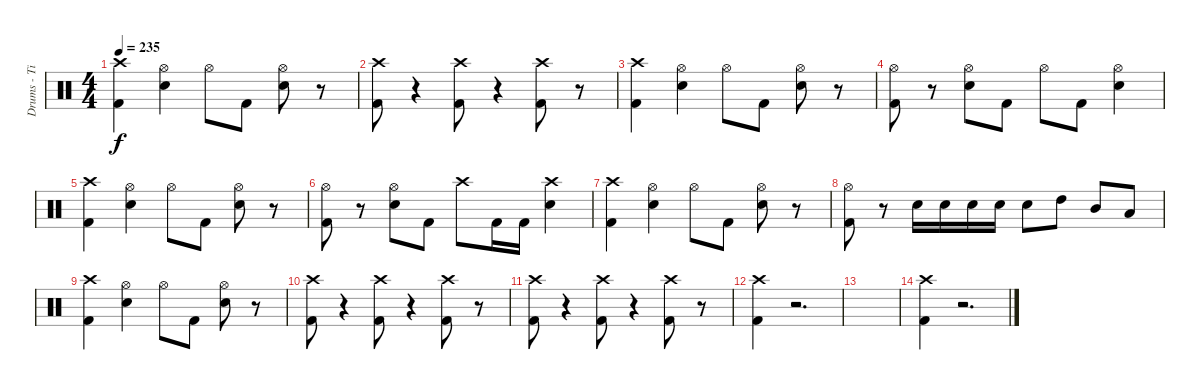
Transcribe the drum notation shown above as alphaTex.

\track ("Drums - Tim \"Herb\" Alexander" "Drums - Ti") {instrument percussion}
\staff {score}
\articulation defaults
\ts (4 4)
\tempo 235
\clef neutral
\ks c
("Crash high (hit)" "Kick (hit) 2").4{dy f} ("Hi-Hat (open)" "Snare (hit) 2").4 "Hi-Hat (open)".8 "Kick (hit) 2".8 ("Hi-Hat (open)" "Snare (hit) 2").8 r.8 |
("Crash high (hit)" "Kick (hit) 2").8 r.4 ("Crash high (hit)" "Kick (hit) 2").8 r.4 ("Crash high (hit)" "Kick (hit) 2").8 r.8 |
("Crash high (hit)" "Kick (hit) 2").4 ("Hi-Hat (open)" "Snare (hit) 2").4 "Hi-Hat (open)".8 "Kick (hit) 2".8 ("Hi-Hat (open)" "Snare (hit) 2").8 r.8 |
("Hi-Hat (open)" "Kick (hit) 2").8 r.8 ("Hi-Hat (open)" "Snare (hit) 2").8 "Kick (hit) 2".8 "Hi-Hat (open)".8 "Kick (hit) 2".8 ("Hi-Hat (open)" "Snare (hit) 2").4 |
("Crash high (hit)" "Kick (hit) 2").4 ("Hi-Hat (open)" "Snare (hit) 2").4 "Hi-Hat (open)".8 "Kick (hit) 2".8 ("Hi-Hat (open)" "Snare (hit) 2").8 r.8 |
("Hi-Hat (open)" "Kick (hit) 2").8 r.8 ("Hi-Hat (open)" "Snare (hit) 2").8 "Kick (hit) 2".8 "Crash high (hit)".8 "Kick (hit) 2".16 "Kick (hit) 2".16 ("Crash high (hit)" "Snare (hit) 2").4 |
("Crash high (hit)" "Kick (hit) 2").4 ("Hi-Hat (open)" "Snare (hit) 2").4 "Hi-Hat (open)".8 "Kick (hit) 2".8 ("Hi-Hat (open)" "Snare (hit) 2").8 r.8 |
("Hi-Hat (open)" "Kick (hit) 2").8 r.8 "Snare (hit) 2".16 "Snare (hit) 2".16 "Snare (hit) 2".16 "Snare (hit) 2".16 "Snare (hit) 2".8 "High Tom (hit)".8 "Mid Tom (hit)".8 "Low Tom (hit)".8 |
("Crash high (hit)" "Kick (hit) 2").4 ("Hi-Hat (open)" "Snare (hit) 2").4 "Hi-Hat (open)".8 "Kick (hit) 2".8 ("Hi-Hat (open)" "Snare (hit) 2").8 r.8 |
("Crash high (hit)" "Kick (hit) 2").8 r.4 ("Crash high (hit)" "Kick (hit) 2").8 r.4 ("Crash high (hit)" "Kick (hit) 2").8 r.8 |
("Crash high (hit)" "Kick (hit) 2").8 r.4 ("Crash high (hit)" "Kick (hit) 2").8 r.4 ("Crash high (hit)" "Kick (hit) 2").8 r.8 |
("Crash high (hit)" "Kick (hit) 2").4 r.2{d} |
|
("Crash high (hit)" "Kick (hit) 2").4 r.2{d}
